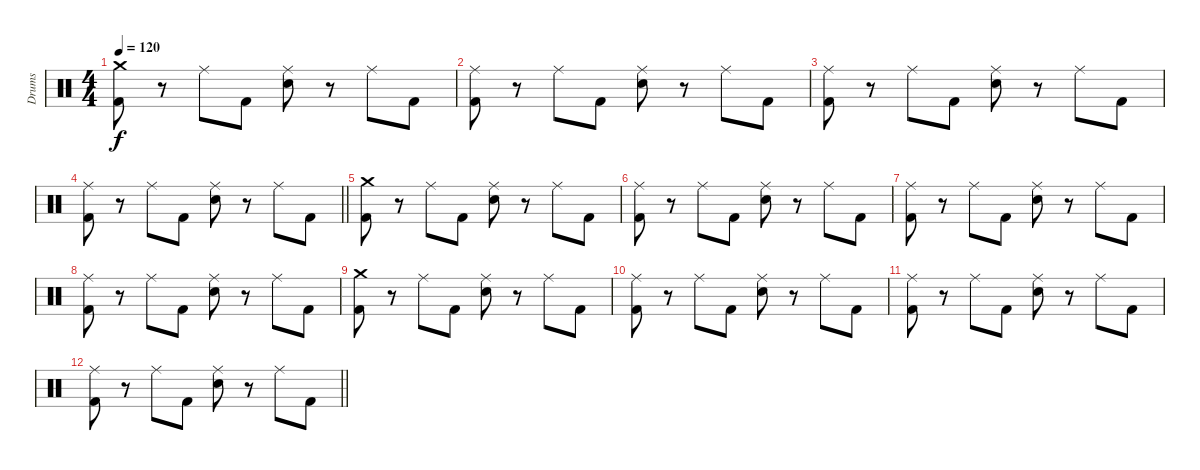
\track ("Drums" "Drums") {instrument percussion}
\staff {score}
\articulation defaults
\ts (4 4)
\tempo 120
\clef neutral
\ks c
("Crash medium (hit)" "Kick (hit) 2").8{dy f} r.8 "Ride (middle)".8 "Kick (hit) 2".8 ("Ride (middle)" "Snare (hit) 2").8 r.8 "Ride (middle)".8 "Kick (hit) 2".8 |
("Ride (middle)" "Kick (hit) 2").8 r.8 "Ride (middle)".8 "Kick (hit) 2".8 ("Ride (middle)" "Snare (hit) 2").8 r.8 "Ride (middle)".8 "Kick (hit) 2".8 |
("Ride (middle)" "Kick (hit) 2").8 r.8 "Ride (middle)".8 "Kick (hit) 2".8 ("Ride (middle)" "Snare (hit) 2").8 r.8 "Ride (middle)".8 "Kick (hit) 2".8 |
\barLineRight lightlight
("Ride (middle)" "Kick (hit) 2").8 r.8 "Ride (middle)".8 "Kick (hit) 2".8 ("Ride (middle)" "Snare (hit) 2").8 r.8 "Ride (middle)".8 "Kick (hit) 2".8 |
("Crash medium (hit)" "Kick (hit) 2").8 r.8 "Ride (middle)".8 "Kick (hit) 2".8 ("Ride (middle)" "Snare (hit) 2").8 r.8 "Ride (middle)".8 "Kick (hit) 2".8 |
("Ride (middle)" "Kick (hit) 2").8 r.8 "Ride (middle)".8 "Kick (hit) 2".8 ("Ride (middle)" "Snare (hit) 2").8 r.8 "Ride (middle)".8 "Kick (hit) 2".8 |
("Ride (middle)" "Kick (hit) 2").8 r.8 "Ride (middle)".8 "Kick (hit) 2".8 ("Ride (middle)" "Snare (hit) 2").8 r.8 "Ride (middle)".8 "Kick (hit) 2".8 |
("Ride (middle)" "Kick (hit) 2").8 r.8 "Ride (middle)".8 "Kick (hit) 2".8 ("Ride (middle)" "Snare (hit) 2").8 r.8 "Ride (middle)".8 "Kick (hit) 2".8 |
("Crash medium (hit)" "Kick (hit) 2").8 r.8 "Ride (middle)".8 "Kick (hit) 2".8 ("Ride (middle)" "Snare (hit) 2").8 r.8 "Ride (middle)".8 "Kick (hit) 2".8 |
("Ride (middle)" "Kick (hit) 2").8 r.8 "Ride (middle)".8 "Kick (hit) 2".8 ("Ride (middle)" "Snare (hit) 2").8 r.8 "Ride (middle)".8 "Kick (hit) 2".8 |
("Ride (middle)" "Kick (hit) 2").8 r.8 "Ride (middle)".8 "Kick (hit) 2".8 ("Ride (middle)" "Snare (hit) 2").8 r.8 "Ride (middle)".8 "Kick (hit) 2".8 |
\barLineRight lightlight
("Ride (middle)" "Kick (hit) 2").8 r.8 "Ride (middle)".8 "Kick (hit) 2".8 ("Ride (middle)" "Snare (hit) 2").8 r.8 "Ride (middle)".8 "Kick (hit) 2".8
